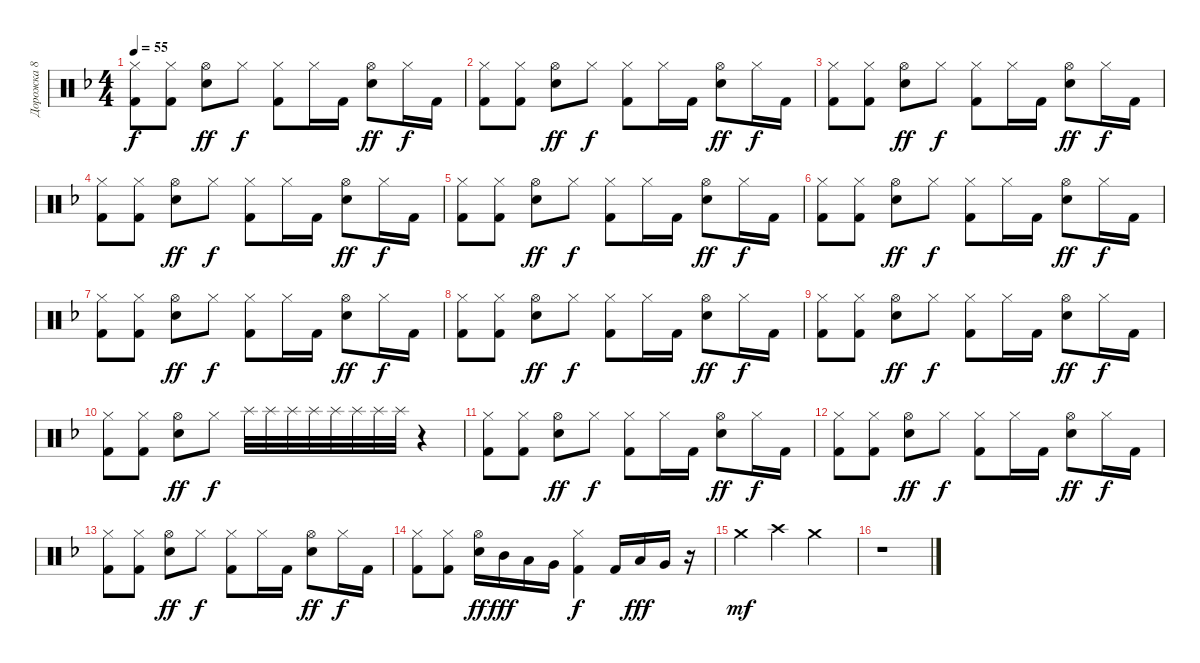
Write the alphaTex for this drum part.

\track ("Дорожка 8" "Дорожка 8") {instrument percussion}
\staff {score}
\articulation defaults
\ts (4 4)
\tempo 55
\clef neutral
\ks dminor
("Hi-Hat (closed)" "Kick (hit) 2").8{dy f} ("Hi-Hat (closed)" "Kick (hit) 2").8 ("Hi-Hat (open)" "Snare (hit) 2").8{dy ff} "Hi-Hat (closed)".8{dy f} ("Hi-Hat (closed)" "Kick (hit) 2").8 "Hi-Hat (closed)".16 "Kick (hit) 2".16 ("Hi-Hat (open)" "Snare (hit) 2").8{dy ff} "Hi-Hat (closed)".16{dy f} "Kick (hit) 2".16 |
("Hi-Hat (closed)" "Kick (hit) 2").8 ("Hi-Hat (closed)" "Kick (hit) 2").8 ("Hi-Hat (open)" "Snare (hit) 2").8{dy ff} "Hi-Hat (closed)".8{dy f} ("Hi-Hat (closed)" "Kick (hit) 2").8 "Hi-Hat (closed)".16 "Kick (hit) 2".16 ("Hi-Hat (open)" "Snare (hit) 2").8{dy ff} "Hi-Hat (closed)".16{dy f} "Kick (hit) 2".16 |
("Hi-Hat (closed)" "Kick (hit) 2").8 ("Hi-Hat (closed)" "Kick (hit) 2").8 ("Hi-Hat (open)" "Snare (hit) 2").8{dy ff} "Hi-Hat (closed)".8{dy f} ("Hi-Hat (closed)" "Kick (hit) 2").8 "Hi-Hat (closed)".16 "Kick (hit) 2".16 ("Hi-Hat (open)" "Snare (hit) 2").8{dy ff} "Hi-Hat (closed)".16{dy f} "Kick (hit) 2".16 |
("Hi-Hat (closed)" "Kick (hit) 2").8 ("Hi-Hat (closed)" "Kick (hit) 2").8 ("Hi-Hat (open)" "Snare (hit) 2").8{dy ff} "Hi-Hat (closed)".8{dy f} ("Hi-Hat (closed)" "Kick (hit) 2").8 "Hi-Hat (closed)".16 "Kick (hit) 2".16 ("Hi-Hat (open)" "Snare (hit) 2").8{dy ff} "Hi-Hat (closed)".16{dy f} "Kick (hit) 2".16 |
("Hi-Hat (closed)" "Kick (hit) 2").8 ("Hi-Hat (closed)" "Kick (hit) 2").8 ("Hi-Hat (open)" "Snare (hit) 2").8{dy ff} "Hi-Hat (closed)".8{dy f} ("Hi-Hat (closed)" "Kick (hit) 2").8 "Hi-Hat (closed)".16 "Kick (hit) 2".16 ("Hi-Hat (open)" "Snare (hit) 2").8{dy ff} "Hi-Hat (closed)".16{dy f} "Kick (hit) 2".16 |
("Hi-Hat (closed)" "Kick (hit) 2").8 ("Hi-Hat (closed)" "Kick (hit) 2").8 ("Hi-Hat (open)" "Snare (hit) 2").8{dy ff} "Hi-Hat (closed)".8{dy f} ("Hi-Hat (closed)" "Kick (hit) 2").8 "Hi-Hat (closed)".16 "Kick (hit) 2".16 ("Hi-Hat (open)" "Snare (hit) 2").8{dy ff} "Hi-Hat (closed)".16{dy f} "Kick (hit) 2".16 |
("Hi-Hat (closed)" "Kick (hit) 2").8 ("Hi-Hat (closed)" "Kick (hit) 2").8 ("Hi-Hat (open)" "Snare (hit) 2").8{dy ff} "Hi-Hat (closed)".8{dy f} ("Hi-Hat (closed)" "Kick (hit) 2").8 "Hi-Hat (closed)".16 "Kick (hit) 2".16 ("Hi-Hat (open)" "Snare (hit) 2").8{dy ff} "Hi-Hat (closed)".16{dy f} "Kick (hit) 2".16 |
("Hi-Hat (closed)" "Kick (hit) 2").8 ("Hi-Hat (closed)" "Kick (hit) 2").8 ("Hi-Hat (open)" "Snare (hit) 2").8{dy ff} "Hi-Hat (closed)".8{dy f} ("Hi-Hat (closed)" "Kick (hit) 2").8 "Hi-Hat (closed)".16 "Kick (hit) 2".16 ("Hi-Hat (open)" "Snare (hit) 2").8{dy ff} "Hi-Hat (closed)".16{dy f} "Kick (hit) 2".16 |
("Hi-Hat (closed)" "Kick (hit) 2").8 ("Hi-Hat (closed)" "Kick (hit) 2").8 ("Hi-Hat (open)" "Snare (hit) 2").8{dy ff} "Hi-Hat (closed)".8{dy f} ("Hi-Hat (closed)" "Kick (hit) 2").8 "Hi-Hat (closed)".16 "Kick (hit) 2".16 ("Hi-Hat (open)" "Snare (hit) 2").8{dy ff} "Hi-Hat (closed)".16{dy f} "Kick (hit) 2".16 |
("Hi-Hat (closed)" "Kick (hit) 2").8 ("Hi-Hat (closed)" "Kick (hit) 2").8 ("Hi-Hat (open)" "Snare (hit) 2").8{dy ff} "Hi-Hat (closed)".8{dy f} "Splash (hit)".32 "Splash (hit)".32 "Splash (hit)".32 "Splash (hit)".32 "Splash (hit)".32 "Splash (hit)".32 "Splash (hit)".32 "Splash (hit)".32 r.4 |
("Hi-Hat (closed)" "Kick (hit) 2").8 ("Hi-Hat (closed)" "Kick (hit) 2").8 ("Hi-Hat (open)" "Snare (hit) 2").8{dy ff} "Hi-Hat (closed)".8{dy f} ("Hi-Hat (closed)" "Kick (hit) 2").8 "Hi-Hat (closed)".16 "Kick (hit) 2".16 ("Hi-Hat (open)" "Snare (hit) 2").8{dy ff} "Hi-Hat (closed)".16{dy f} "Kick (hit) 2".16 |
("Hi-Hat (closed)" "Kick (hit) 2").8 ("Hi-Hat (closed)" "Kick (hit) 2").8 ("Hi-Hat (open)" "Snare (hit) 2").8{dy ff} "Hi-Hat (closed)".8{dy f} ("Hi-Hat (closed)" "Kick (hit) 2").8 "Hi-Hat (closed)".16 "Kick (hit) 2".16 ("Hi-Hat (open)" "Snare (hit) 2").8{dy ff} "Hi-Hat (closed)".16{dy f} "Kick (hit) 2".16 |
("Hi-Hat (closed)" "Kick (hit) 2").8 ("Hi-Hat (closed)" "Kick (hit) 2").8 ("Hi-Hat (open)" "Snare (hit) 2").8{dy ff} "Hi-Hat (closed)".8{dy f} ("Hi-Hat (closed)" "Kick (hit) 2").8 "Hi-Hat (closed)".16 "Kick (hit) 2".16 ("Hi-Hat (open)" "Snare (hit) 2").8{dy ff} "Hi-Hat (closed)".16{dy f} "Kick (hit) 2".16 |
("Hi-Hat (closed)" "Kick (hit) 2").8 ("Hi-Hat (closed)" "Kick (hit) 2").8 ("Hi-Hat (open)" "Snare (hit) 2").16{dy ff} "Mid Tom (hit)".16{dy fff} "Low Tom (hit)".16 "Very Low Tom (hit)".16 ("Hi-Hat (closed)" "Kick (hit) 2").4{dy f} "Kick (hit) 2".16 "Low Tom (hit)".16{dy fff} "Very Low Tom (hit)".16 r.16 |
"Crash medium (hit)".4{dy mf} "Crash high (hit)".4 "Crash medium (hit)".2 |
r.1
